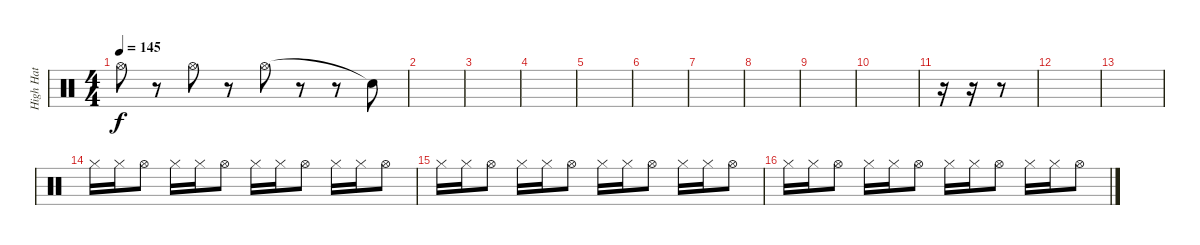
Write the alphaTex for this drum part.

\track ("High Hat" "High Hat") {instrument percussion}
\staff {score}
\articulation defaults
\ts (4 4)
\tempo 145
\clef neutral
\ks c "Hi-Hat (open)".8{dy f}
r.8 "Hi-Hat (open)".8 r.8 "Hi-Hat (open)".8 r.8 r.8 "Snare (hit)"{t}.8 |
|
|
|
|
|
|
|
|
|
r.16 r.16 r.8 |
|
|
"Hi-Hat (closed)".16 "Hi-Hat (closed)".16 "Hi-Hat (open)".8 "Hi-Hat (closed)".16 "Hi-Hat (closed)".16 "Hi-Hat (open)".8 "Hi-Hat (closed)".16 "Hi-Hat (closed)".16 "Hi-Hat (open)".8 "Hi-Hat (closed)".16 "Hi-Hat (closed)".16 "Hi-Hat (open)".8 |
"Hi-Hat (closed)".16 "Hi-Hat (closed)".16 "Hi-Hat (open)".8 "Hi-Hat (closed)".16 "Hi-Hat (closed)".16 "Hi-Hat (open)".8 "Hi-Hat (closed)".16 "Hi-Hat (closed)".16 "Hi-Hat (open)".8 "Hi-Hat (closed)".16 "Hi-Hat (closed)".16 "Hi-Hat (open)".8 |
"Hi-Hat (closed)".16 "Hi-Hat (closed)".16 "Hi-Hat (open)".8 "Hi-Hat (closed)".16 "Hi-Hat (closed)".16 "Hi-Hat (open)".8 "Hi-Hat (closed)".16 "Hi-Hat (closed)".16 "Hi-Hat (open)".8 "Hi-Hat (closed)".16 "Hi-Hat (closed)".16 "Hi-Hat (open)".8
